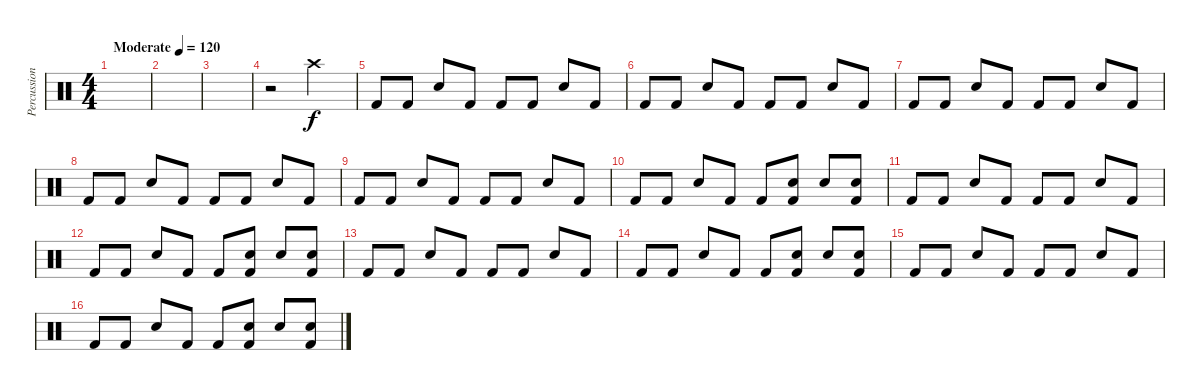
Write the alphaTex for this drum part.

\track ("Percussion" "Percussion") {instrument percussion}
\staff {score}
\articulation defaults
\ts (4 4)
\tempo (120 "Moderate")
\clef neutral
\ks c
|
|
|
r.2 "Crash high (hit)".2 |
"Kick (hit) 2".8 "Kick (hit) 2".8 "Electric Snare (hit)".8 "Kick (hit) 2".8 "Kick (hit) 2".8 "Kick (hit) 2".8 "Electric Snare (hit)".8 "Kick (hit) 2".8 |
"Kick (hit) 2".8 "Kick (hit) 2".8 "Electric Snare (hit)".8 "Kick (hit) 2".8 "Kick (hit) 2".8 "Kick (hit) 2".8 "Electric Snare (hit)".8 "Kick (hit) 2".8 |
"Kick (hit) 2".8 "Kick (hit) 2".8 "Electric Snare (hit)".8 "Kick (hit) 2".8 "Kick (hit) 2".8 "Kick (hit) 2".8 "Electric Snare (hit)".8 "Kick (hit) 2".8 |
"Kick (hit) 2".8 "Kick (hit) 2".8 "Electric Snare (hit)".8 "Kick (hit) 2".8 "Kick (hit) 2".8 "Kick (hit) 2".8 "Electric Snare (hit)".8 "Kick (hit) 2".8 |
"Kick (hit) 2".8 "Kick (hit) 2".8 "Electric Snare (hit)".8 "Kick (hit) 2".8 "Kick (hit) 2".8 "Kick (hit) 2".8 "Electric Snare (hit)".8 "Kick (hit) 2".8 |
"Kick (hit) 2".8 "Kick (hit) 2".8 "Electric Snare (hit)".8 "Kick (hit) 2".8 "Kick (hit) 2".8 ("Electric Snare (hit)" "Kick (hit) 2").8 "Electric Snare (hit)".8 ("Kick (hit) 2" "Electric Snare (hit)").8 |
"Kick (hit) 2".8 "Kick (hit) 2".8 "Electric Snare (hit)".8 "Kick (hit) 2".8 "Kick (hit) 2".8 "Kick (hit) 2".8 "Electric Snare (hit)".8 "Kick (hit) 2".8 |
"Kick (hit) 2".8 "Kick (hit) 2".8 "Electric Snare (hit)".8 "Kick (hit) 2".8 "Kick (hit) 2".8 ("Electric Snare (hit)" "Kick (hit) 2").8 "Electric Snare (hit)".8 ("Kick (hit) 2" "Electric Snare (hit)").8 |
"Kick (hit) 2".8 "Kick (hit) 2".8 "Electric Snare (hit)".8 "Kick (hit) 2".8 "Kick (hit) 2".8 "Kick (hit) 2".8 "Electric Snare (hit)".8 "Kick (hit) 2".8 |
"Kick (hit) 2".8 "Kick (hit) 2".8 "Electric Snare (hit)".8 "Kick (hit) 2".8 "Kick (hit) 2".8 ("Electric Snare (hit)" "Kick (hit) 2").8 "Electric Snare (hit)".8 ("Kick (hit) 2" "Electric Snare (hit)").8 |
"Kick (hit) 2".8 "Kick (hit) 2".8 "Electric Snare (hit)".8 "Kick (hit) 2".8 "Kick (hit) 2".8 "Kick (hit) 2".8 "Electric Snare (hit)".8 "Kick (hit) 2".8 |
"Kick (hit) 2".8 "Kick (hit) 2".8 "Electric Snare (hit)".8 "Kick (hit) 2".8 "Kick (hit) 2".8 ("Electric Snare (hit)" "Kick (hit) 2").8 "Electric Snare (hit)".8 ("Kick (hit) 2" "Electric Snare (hit)").8
